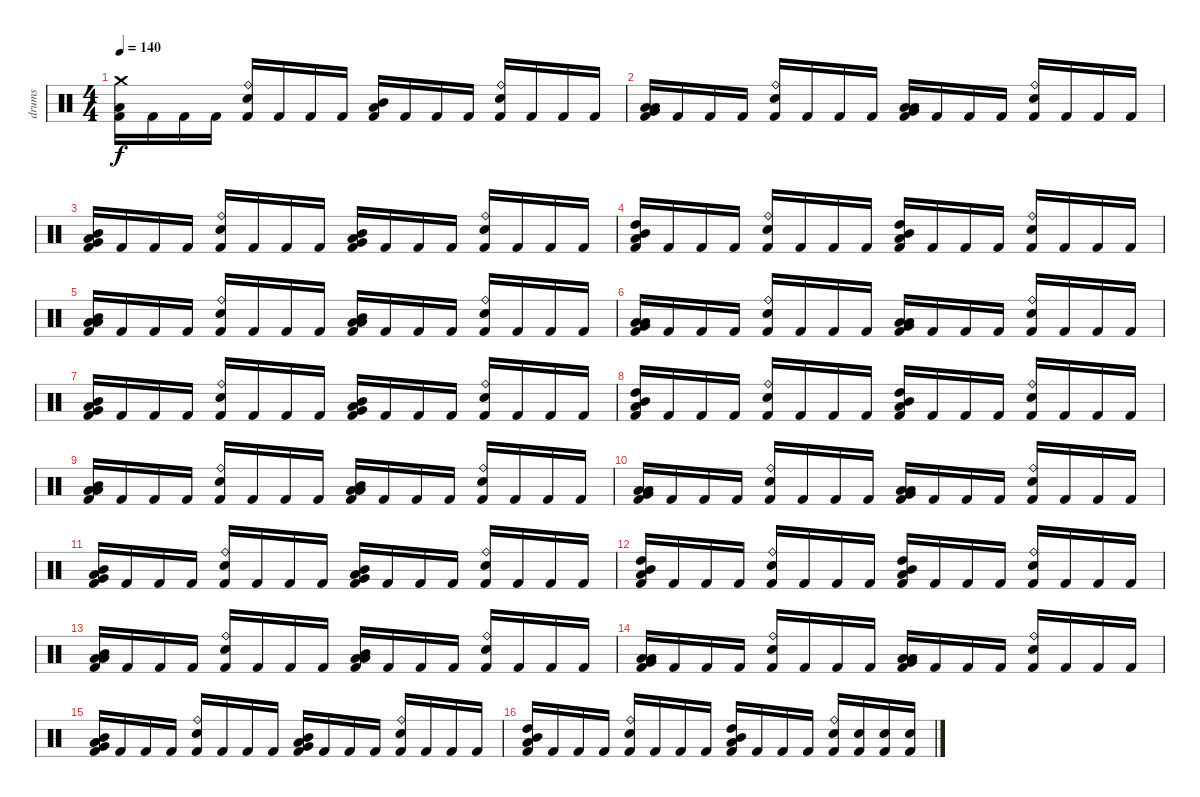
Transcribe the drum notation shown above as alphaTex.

\track ("drums" "drums") {instrument percussion}
\staff {score}
\articulation defaults
\ts (4 4)
\tempo 140
\clef neutral
\ks c
("Crash medium (hit)" "Low Tom (hit)" "Kick (hit) 2").16{dy f} "Kick (hit) 2".16 "Kick (hit) 2".16 "Kick (hit) 2".16 ("Ride (bell)" "Electric Snare (hit)" "Kick (hit) 2").16 "Kick (hit) 2".16 "Kick (hit) 2".16 "Kick (hit) 2".16 ("Mid Tom (hit)" "Low Tom (hit)" "Kick (hit) 2").16 "Kick (hit) 2".16 "Kick (hit) 2".16 "Kick (hit) 2".16 ("Ride (bell)" "Electric Snare (hit)" "Kick (hit) 2").16 "Kick (hit) 2".16 "Kick (hit) 2".16 "Kick (hit) 2".16 |
("Low Tom (hit)" "Very Low Tom (hit)" "Low Floor Tom (hit)" "Kick (hit) 2").16 "Kick (hit) 2".16 "Kick (hit) 2".16 "Kick (hit) 2".16 ("Ride (bell)" "Electric Snare (hit)" "Kick (hit) 2").16 "Kick (hit) 2".16 "Kick (hit) 2".16 "Kick (hit) 2".16 ("Low Tom (hit)" "Very Low Tom (hit)" "Low Floor Tom (hit)" "Kick (hit) 2").16 "Kick (hit) 2".16 "Kick (hit) 2".16 "Kick (hit) 2".16 ("Ride (bell)" "Electric Snare (hit)" "Kick (hit) 2").16 "Kick (hit) 2".16 "Kick (hit) 2".16 "Kick (hit) 2".16 |
("Mid Tom (hit)" "Low Tom (hit)" "Very Low Tom (hit)" "Kick (hit) 2").16 "Kick (hit) 2".16 "Kick (hit) 2".16 "Kick (hit) 2".16 ("Ride (bell)" "Electric Snare (hit)" "Kick (hit) 2").16 "Kick (hit) 2".16 "Kick (hit) 2".16 "Kick (hit) 2".16 ("Mid Tom (hit)" "Low Tom (hit)" "Very Low Tom (hit)" "Kick (hit) 2").16 "Kick (hit) 2".16 "Kick (hit) 2".16 "Kick (hit) 2".16 ("Ride (bell)" "Electric Snare (hit)" "Kick (hit) 2").16 "Kick (hit) 2".16 "Kick (hit) 2".16 "Kick (hit) 2".16 |
("High Tom (hit)" "Mid Tom (hit)" "Low Tom (hit)" "Kick (hit) 2").16 "Kick (hit) 2".16 "Kick (hit) 2".16 "Kick (hit) 2".16 ("Ride (bell)" "Electric Snare (hit)" "Kick (hit) 2").16 "Kick (hit) 2".16 "Kick (hit) 2".16 "Kick (hit) 2".16 ("High Tom (hit)" "Mid Tom (hit)" "Low Tom (hit)" "Kick (hit) 2").16 "Kick (hit) 2".16 "Kick (hit) 2".16 "Kick (hit) 2".16 ("Ride (bell)" "Electric Snare (hit)" "Kick (hit) 2").16 "Kick (hit) 2".16 "Kick (hit) 2".16 "Kick (hit) 2".16 |
("Mid Tom (hit)" "Low Tom (hit)" "Low Floor Tom (hit)" "Kick (hit) 2").16 "Kick (hit) 2".16 "Kick (hit) 2".16 "Kick (hit) 2".16 ("Ride (bell)" "Electric Snare (hit)" "Kick (hit) 2").16 "Kick (hit) 2".16 "Kick (hit) 2".16 "Kick (hit) 2".16 ("Mid Tom (hit)" "Low Tom (hit)" "Low Floor Tom (hit)" "Kick (hit) 2").16 "Kick (hit) 2".16 "Kick (hit) 2".16 "Kick (hit) 2".16 ("Ride (bell)" "Electric Snare (hit)" "Kick (hit) 2").16 "Kick (hit) 2".16 "Kick (hit) 2".16 "Kick (hit) 2".16 |
("Low Tom (hit)" "Very Low Tom (hit)" "Low Floor Tom (hit)" "Kick (hit) 2").16 "Kick (hit) 2".16 "Kick (hit) 2".16 "Kick (hit) 2".16 ("Ride (bell)" "Electric Snare (hit)" "Kick (hit) 2").16 "Kick (hit) 2".16 "Kick (hit) 2".16 "Kick (hit) 2".16 ("Low Tom (hit)" "Very Low Tom (hit)" "Low Floor Tom (hit)" "Kick (hit) 2").16 "Kick (hit) 2".16 "Kick (hit) 2".16 "Kick (hit) 2".16 ("Ride (bell)" "Electric Snare (hit)" "Kick (hit) 2").16 "Kick (hit) 2".16 "Kick (hit) 2".16 "Kick (hit) 2".16 |
("Mid Tom (hit)" "Low Tom (hit)" "Very Low Tom (hit)" "Kick (hit) 2").16 "Kick (hit) 2".16 "Kick (hit) 2".16 "Kick (hit) 2".16 ("Ride (bell)" "Electric Snare (hit)" "Kick (hit) 2").16 "Kick (hit) 2".16 "Kick (hit) 2".16 "Kick (hit) 2".16 ("Mid Tom (hit)" "Low Tom (hit)" "Very Low Tom (hit)" "Kick (hit) 2").16 "Kick (hit) 2".16 "Kick (hit) 2".16 "Kick (hit) 2".16 ("Ride (bell)" "Electric Snare (hit)" "Kick (hit) 2").16 "Kick (hit) 2".16 "Kick (hit) 2".16 "Kick (hit) 2".16 |
("High Tom (hit)" "Mid Tom (hit)" "Low Tom (hit)" "Kick (hit) 2").16 "Kick (hit) 2".16 "Kick (hit) 2".16 "Kick (hit) 2".16 ("Ride (bell)" "Electric Snare (hit)" "Kick (hit) 2").16 "Kick (hit) 2".16 "Kick (hit) 2".16 "Kick (hit) 2".16 ("High Tom (hit)" "Mid Tom (hit)" "Low Tom (hit)" "Kick (hit) 2").16 "Kick (hit) 2".16 "Kick (hit) 2".16 "Kick (hit) 2".16 ("Ride (bell)" "Electric Snare (hit)" "Kick (hit) 2").16 "Kick (hit) 2".16 "Kick (hit) 2".16 "Kick (hit) 2".16 |
("Mid Tom (hit)" "Low Tom (hit)" "Low Floor Tom (hit)" "Kick (hit) 2").16 "Kick (hit) 2".16 "Kick (hit) 2".16 "Kick (hit) 2".16 ("Ride (bell)" "Electric Snare (hit)" "Kick (hit) 2").16 "Kick (hit) 2".16 "Kick (hit) 2".16 "Kick (hit) 2".16 ("Mid Tom (hit)" "Low Tom (hit)" "Low Floor Tom (hit)" "Kick (hit) 2").16 "Kick (hit) 2".16 "Kick (hit) 2".16 "Kick (hit) 2".16 ("Ride (bell)" "Electric Snare (hit)" "Kick (hit) 2").16 "Kick (hit) 2".16 "Kick (hit) 2".16 "Kick (hit) 2".16 |
("Low Tom (hit)" "Very Low Tom (hit)" "Low Floor Tom (hit)" "Kick (hit) 2").16 "Kick (hit) 2".16 "Kick (hit) 2".16 "Kick (hit) 2".16 ("Ride (bell)" "Electric Snare (hit)" "Kick (hit) 2").16 "Kick (hit) 2".16 "Kick (hit) 2".16 "Kick (hit) 2".16 ("Low Tom (hit)" "Very Low Tom (hit)" "Low Floor Tom (hit)" "Kick (hit) 2").16 "Kick (hit) 2".16 "Kick (hit) 2".16 "Kick (hit) 2".16 ("Ride (bell)" "Electric Snare (hit)" "Kick (hit) 2").16 "Kick (hit) 2".16 "Kick (hit) 2".16 "Kick (hit) 2".16 |
("Mid Tom (hit)" "Low Tom (hit)" "Very Low Tom (hit)" "Kick (hit) 2").16 "Kick (hit) 2".16 "Kick (hit) 2".16 "Kick (hit) 2".16 ("Ride (bell)" "Electric Snare (hit)" "Kick (hit) 2").16 "Kick (hit) 2".16 "Kick (hit) 2".16 "Kick (hit) 2".16 ("Mid Tom (hit)" "Low Tom (hit)" "Very Low Tom (hit)" "Kick (hit) 2").16 "Kick (hit) 2".16 "Kick (hit) 2".16 "Kick (hit) 2".16 ("Ride (bell)" "Electric Snare (hit)" "Kick (hit) 2").16 "Kick (hit) 2".16 "Kick (hit) 2".16 "Kick (hit) 2".16 |
("High Tom (hit)" "Mid Tom (hit)" "Low Tom (hit)" "Kick (hit) 2").16 "Kick (hit) 2".16 "Kick (hit) 2".16 "Kick (hit) 2".16 ("Ride (bell)" "Electric Snare (hit)" "Kick (hit) 2").16 "Kick (hit) 2".16 "Kick (hit) 2".16 "Kick (hit) 2".16 ("High Tom (hit)" "Mid Tom (hit)" "Low Tom (hit)" "Kick (hit) 2").16 "Kick (hit) 2".16 "Kick (hit) 2".16 "Kick (hit) 2".16 ("Ride (bell)" "Electric Snare (hit)" "Kick (hit) 2").16 "Kick (hit) 2".16 "Kick (hit) 2".16 "Kick (hit) 2".16 |
("Mid Tom (hit)" "Low Tom (hit)" "Low Floor Tom (hit)" "Kick (hit) 2").16 "Kick (hit) 2".16 "Kick (hit) 2".16 "Kick (hit) 2".16 ("Ride (bell)" "Electric Snare (hit)" "Kick (hit) 2").16 "Kick (hit) 2".16 "Kick (hit) 2".16 "Kick (hit) 2".16 ("Mid Tom (hit)" "Low Tom (hit)" "Low Floor Tom (hit)" "Kick (hit) 2").16 "Kick (hit) 2".16 "Kick (hit) 2".16 "Kick (hit) 2".16 ("Ride (bell)" "Electric Snare (hit)" "Kick (hit) 2").16 "Kick (hit) 2".16 "Kick (hit) 2".16 "Kick (hit) 2".16 |
("Low Tom (hit)" "Very Low Tom (hit)" "Low Floor Tom (hit)" "Kick (hit) 2").16 "Kick (hit) 2".16 "Kick (hit) 2".16 "Kick (hit) 2".16 ("Ride (bell)" "Electric Snare (hit)" "Kick (hit) 2").16 "Kick (hit) 2".16 "Kick (hit) 2".16 "Kick (hit) 2".16 ("Low Tom (hit)" "Very Low Tom (hit)" "Low Floor Tom (hit)" "Kick (hit) 2").16 "Kick (hit) 2".16 "Kick (hit) 2".16 "Kick (hit) 2".16 ("Ride (bell)" "Electric Snare (hit)" "Kick (hit) 2").16 "Kick (hit) 2".16 "Kick (hit) 2".16 "Kick (hit) 2".16 |
("Mid Tom (hit)" "Low Tom (hit)" "Very Low Tom (hit)" "Kick (hit) 2").16 "Kick (hit) 2".16 "Kick (hit) 2".16 "Kick (hit) 2".16 ("Ride (bell)" "Electric Snare (hit)" "Kick (hit) 2").16 "Kick (hit) 2".16 "Kick (hit) 2".16 "Kick (hit) 2".16 ("Mid Tom (hit)" "Low Tom (hit)" "Very Low Tom (hit)" "Kick (hit) 2").16 "Kick (hit) 2".16 "Kick (hit) 2".16 "Kick (hit) 2".16 ("Ride (bell)" "Electric Snare (hit)" "Kick (hit) 2").16 "Kick (hit) 2".16 "Kick (hit) 2".16 "Kick (hit) 2".16 |
("High Tom (hit)" "Mid Tom (hit)" "Low Tom (hit)" "Kick (hit) 2").16 "Kick (hit) 2".16 "Kick (hit) 2".16 "Kick (hit) 2".16 ("Ride (bell)" "Electric Snare (hit)" "Kick (hit) 2").16 "Kick (hit) 2".16 "Kick (hit) 2".16 "Kick (hit) 2".16 ("High Tom (hit)" "Mid Tom (hit)" "Low Tom (hit)" "Kick (hit) 2").16 "Kick (hit) 2".16 "Kick (hit) 2".16 "Kick (hit) 2".16 ("Ride (bell)" "Electric Snare (hit)" "Kick (hit) 2").16 ("Electric Snare (hit)" "Kick (hit) 2").16 ("Electric Snare (hit)" "Kick (hit) 2").16 ("Electric Snare (hit)" "Kick (hit) 2").16
